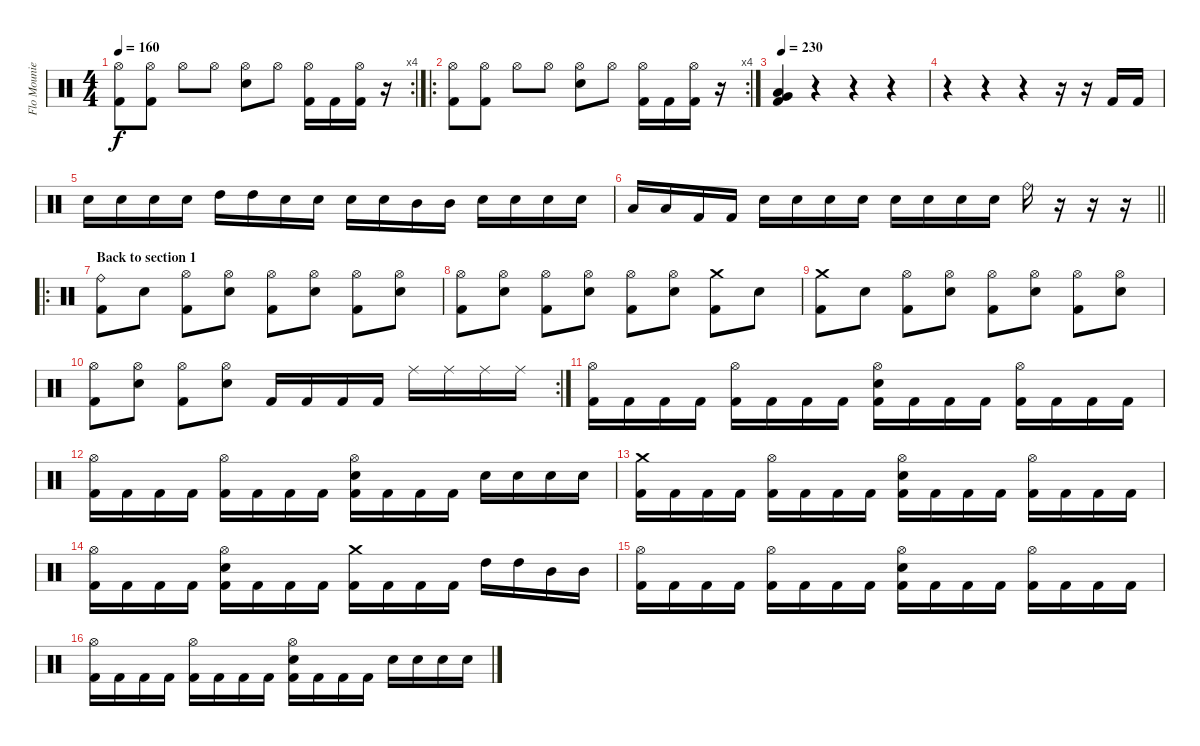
\track ("Flo Mounier" "Flo Mounie") {instrument percussion}
\staff {score}
\articulation defaults
\rc 4
\ts (4 4)
\tempo 160
\clef neutral
\ks c
("Hi-Hat (open)" "Kick (hit) 2").8{dy f} ("Hi-Hat (open)" "Kick (hit) 2").8 "Hi-Hat (open)".8 "Hi-Hat (open)".8 ("Hi-Hat (open)" "Electric Snare (hit)").8 "Hi-Hat (open)".8 ("Hi-Hat (open)" "Kick (hit) 2").16 "Kick (hit) 2".16 ("Hi-Hat (open)" "Kick (hit) 2").16 r.16 |
\ro
\rc 4
("Hi-Hat (open)" "Kick (hit) 2").8 ("Hi-Hat (open)" "Kick (hit) 2").8 "Hi-Hat (open)".8 "Hi-Hat (open)".8 ("Hi-Hat (open)" "Electric Snare (hit)").8 "Hi-Hat (open)".8 ("Hi-Hat (open)" "Kick (hit) 2").16 "Kick (hit) 2".16 ("Hi-Hat (open)" "Kick (hit) 2").16 r.16 |
\tempo 230
("Very Low Tom (hit)" "Low Tom (hit)" "Kick (hit) 2").4 r.4 r.4 r.4 |
r.4 r.4 r.4 r.16 r.16 "Kick (hit) 2".16 "Kick (hit) 2".16 |
"Electric Snare (hit)".16 "Electric Snare (hit)".16 "Electric Snare (hit)".16 "Electric Snare (hit)".16 "High Tom (hit)".16 "High Tom (hit)".16 "Electric Snare (hit)".16 "Electric Snare (hit)".16 "Electric Snare (hit)".16 "Electric Snare (hit)".16 "Mid Tom (hit)".16 "Mid Tom (hit)".16 "Electric Snare (hit)".16 "Electric Snare (hit)".16 "Electric Snare (hit)".16 "Electric Snare (hit)".16 |
\barLineRight lightlight "Low Tom (hit)".16 "Low Tom (hit)".16 "Kick (hit) 2".16 "Kick (hit) 2".16 "Electric Snare (hit)".16 "Electric Snare (hit)".16 "Electric Snare (hit)".16 "Electric Snare (hit)".16 "Electric Snare (hit)".16 "Electric Snare (hit)".16 "Electric Snare (hit)".16 "Electric Snare (hit)".16 "Ride (bell)".16
r.16 r.16 r.16 |
\ro
\section ("" "Back to section 1")
("Ride (bell)" "Kick (hit) 2").8 "Electric Snare (hit)".8 ("Hi-Hat (open)" "Kick (hit) 2").8 ("Hi-Hat (open)" "Electric Snare (hit)").8 ("Hi-Hat (open)" "Kick (hit) 2").8 ("Hi-Hat (open)" "Electric Snare (hit)").8 ("Hi-Hat (open)" "Kick (hit) 2").8 ("Hi-Hat (open)" "Electric Snare (hit)").8 |
("Hi-Hat (open)" "Kick (hit) 2").8 ("Hi-Hat (open)" "Electric Snare (hit)").8 ("Hi-Hat (open)" "Kick (hit) 2").8 ("Hi-Hat (open)" "Electric Snare (hit)").8 ("Hi-Hat (open)" "Kick (hit) 2").8 ("Hi-Hat (open)" "Electric Snare (hit)").8 ("Crash medium (hit)" "Kick (hit) 2").8 "Electric Snare (hit)".8 |
("Crash medium (hit)" "Kick (hit) 2").8 "Electric Snare (hit)".8 ("Hi-Hat (open)" "Kick (hit) 2").8 ("Hi-Hat (open)" "Electric Snare (hit)").8 ("Hi-Hat (open)" "Kick (hit) 2").8 ("Hi-Hat (open)" "Electric Snare (hit)").8 ("Hi-Hat (open)" "Kick (hit) 2").8 ("Hi-Hat (open)" "Electric Snare (hit)").8 |
\rc 2
("Hi-Hat (open)" "Kick (hit) 2").8 ("Hi-Hat (open)" "Electric Snare (hit)").8 ("Hi-Hat (open)" "Kick (hit) 2").8 ("Hi-Hat (open)" "Electric Snare (hit)").8 "Kick (hit) 2".16 "Kick (hit) 2".16 "Kick (hit) 2".16 "Kick (hit) 2".16 "Ride (middle)".16 "Ride (middle)".16 "Ride (middle)".16 "Ride (middle)".16 |
("Hi-Hat (open)" "Kick (hit) 2").16 "Kick (hit) 2".16 "Kick (hit) 2".16 "Kick (hit) 2".16 ("Hi-Hat (open)" "Kick (hit) 2").16 "Kick (hit) 2".16 "Kick (hit) 2".16 "Kick (hit) 2".16 ("Hi-Hat (open)" "Electric Snare (hit)" "Kick (hit) 2").16 "Kick (hit) 2".16 "Kick (hit) 2".16 "Kick (hit) 2".16 ("Hi-Hat (open)" "Kick (hit) 2").16 "Kick (hit) 2".16 "Kick (hit) 2".16 "Kick (hit) 2".16 |
("Hi-Hat (open)" "Kick (hit) 2").16 "Kick (hit) 2".16 "Kick (hit) 2".16 "Kick (hit) 2".16 ("Hi-Hat (open)" "Kick (hit) 2").16 "Kick (hit) 2".16 "Kick (hit) 2".16 "Kick (hit) 2".16 ("Hi-Hat (open)" "Electric Snare (hit)" "Kick (hit) 2").16 "Kick (hit) 2".16 "Kick (hit) 2".16 "Kick (hit) 2".16 "Electric Snare (hit)".16 "Electric Snare (hit)".16 "Electric Snare (hit)".16 "Electric Snare (hit)".16 |
("Crash medium (hit)" "Kick (hit) 2").16 "Kick (hit) 2".16 "Kick (hit) 2".16 "Kick (hit) 2".16 ("Hi-Hat (open)" "Kick (hit) 2").16 "Kick (hit) 2".16 "Kick (hit) 2".16 "Kick (hit) 2".16 ("Hi-Hat (open)" "Electric Snare (hit)" "Kick (hit) 2").16 "Kick (hit) 2".16 "Kick (hit) 2".16 "Kick (hit) 2".16 ("Hi-Hat (open)" "Kick (hit) 2").16 "Kick (hit) 2".16 "Kick (hit) 2".16 "Kick (hit) 2".16 |
("Hi-Hat (open)" "Kick (hit) 2").16 "Kick (hit) 2".16 "Kick (hit) 2".16 "Kick (hit) 2".16 ("Hi-Hat (open)" "Electric Snare (hit)" "Kick (hit) 2").16 "Kick (hit) 2".16 "Kick (hit) 2".16 "Kick (hit) 2".16 ("Crash medium (hit)" "Kick (hit) 2").16 "Kick (hit) 2".16 "Kick (hit) 2".16 "Kick (hit) 2".16 "High Tom (hit)".16 "High Tom (hit)".16 "Mid Tom (hit)".16 "Mid Tom (hit)".16 |
("Hi-Hat (open)" "Kick (hit) 2").16 "Kick (hit) 2".16 "Kick (hit) 2".16 "Kick (hit) 2".16 ("Hi-Hat (open)" "Kick (hit) 2").16 "Kick (hit) 2".16 "Kick (hit) 2".16 "Kick (hit) 2".16 ("Hi-Hat (open)" "Electric Snare (hit)" "Kick (hit) 2").16 "Kick (hit) 2".16 "Kick (hit) 2".16 "Kick (hit) 2".16 ("Hi-Hat (open)" "Kick (hit) 2").16 "Kick (hit) 2".16 "Kick (hit) 2".16 "Kick (hit) 2".16 |
("Hi-Hat (open)" "Kick (hit) 2").16 "Kick (hit) 2".16 "Kick (hit) 2".16 "Kick (hit) 2".16 ("Hi-Hat (open)" "Kick (hit) 2").16 "Kick (hit) 2".16 "Kick (hit) 2".16 "Kick (hit) 2".16 ("Hi-Hat (open)" "Electric Snare (hit)" "Kick (hit) 2").16 "Kick (hit) 2".16 "Kick (hit) 2".16 "Kick (hit) 2".16 "Electric Snare (hit)".16 "Electric Snare (hit)".16 "Electric Snare (hit)".16 "Electric Snare (hit)".16
